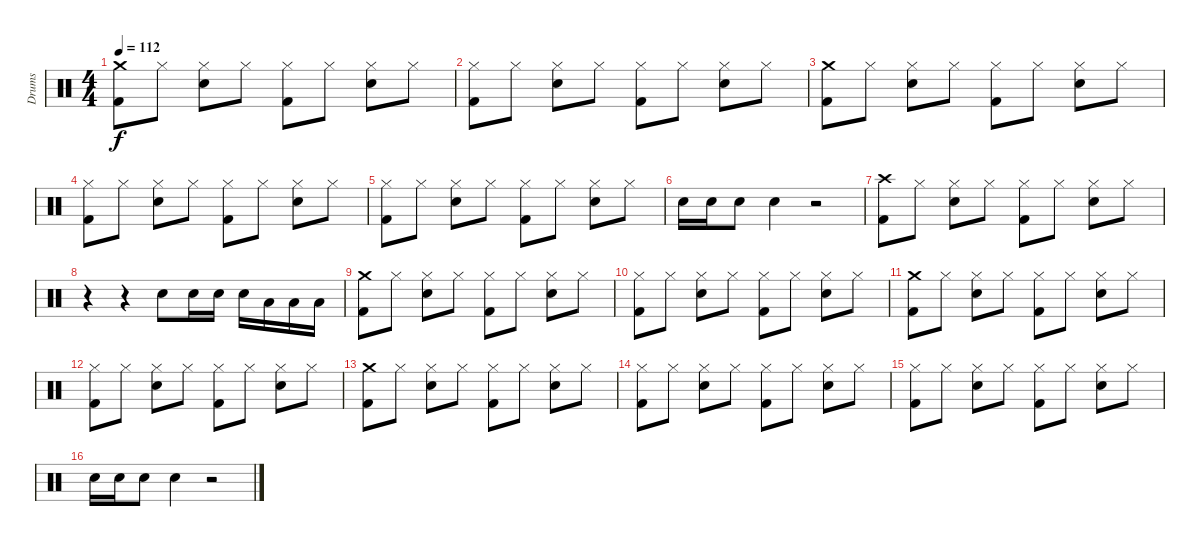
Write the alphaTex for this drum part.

\track ("Drums" "Drums") {instrument percussion}
\staff {score}
\articulation defaults
\ts (4 4)
\tempo 112
\clef neutral
\ks c
("Kick (hit) 2" "Crash medium (hit)").8{dy f} "Hi-Hat (closed)".8 ("Snare (hit) 2" "Hi-Hat (closed)").8 "Hi-Hat (closed)".8 ("Kick (hit) 2" "Hi-Hat (closed)").8 "Hi-Hat (closed)".8 ("Snare (hit) 2" "Hi-Hat (closed)").8 "Hi-Hat (closed)".8 |
("Kick (hit) 2" "Hi-Hat (closed)").8 "Hi-Hat (closed)".8 ("Snare (hit) 2" "Hi-Hat (closed)").8 "Hi-Hat (closed)".8 ("Kick (hit) 2" "Hi-Hat (closed)").8 "Hi-Hat (closed)".8 ("Snare (hit) 2" "Hi-Hat (closed)").8 "Hi-Hat (closed)".8 |
("Kick (hit) 2" "Crash medium (hit)").8 "Hi-Hat (closed)".8 ("Snare (hit) 2" "Hi-Hat (closed)").8 "Hi-Hat (closed)".8 ("Kick (hit) 2" "Hi-Hat (closed)").8 "Hi-Hat (closed)".8 ("Snare (hit) 2" "Hi-Hat (closed)").8 "Hi-Hat (closed)".8 |
("Kick (hit) 2" "Hi-Hat (closed)").8 "Hi-Hat (closed)".8 ("Snare (hit) 2" "Hi-Hat (closed)").8 "Hi-Hat (closed)".8 ("Kick (hit) 2" "Hi-Hat (closed)").8 "Hi-Hat (closed)".8 ("Snare (hit) 2" "Hi-Hat (closed)").8 "Hi-Hat (closed)".8 |
("Kick (hit) 2" "Hi-Hat (closed)").8 "Hi-Hat (closed)".8 ("Snare (hit) 2" "Hi-Hat (closed)").8 "Hi-Hat (closed)".8 ("Kick (hit) 2" "Hi-Hat (closed)").8 "Hi-Hat (closed)".8 ("Snare (hit) 2" "Hi-Hat (closed)").8 "Hi-Hat (closed)".8 |
"Snare (hit) 2".16 "Snare (hit) 2".16 "Snare (hit) 2".8 "Snare (hit) 2".4 r.2 |
("Kick (hit) 2" "Crash high (hit)").8 "Hi-Hat (closed)".8 ("Snare (hit) 2" "Hi-Hat (closed)").8 "Hi-Hat (closed)".8 ("Kick (hit) 2" "Hi-Hat (closed)").8 "Hi-Hat (closed)".8 ("Snare (hit) 2" "Hi-Hat (closed)").8 "Hi-Hat (closed)".8 |
r.4 r.4 "Snare (hit) 2".8 "Snare (hit) 2".16 "Snare (hit) 2".16 "Snare (hit) 2".16 "Low Tom (hit)".16 "Low Tom (hit)".16 "Low Tom (hit)".16 |
("Crash medium (hit)" "Kick (hit) 2").8 "Hi-Hat (closed)".8 ("Snare (hit) 2" "Hi-Hat (closed)").8 "Hi-Hat (closed)".8 ("Kick (hit) 2" "Hi-Hat (closed)").8 "Hi-Hat (closed)".8 ("Snare (hit) 2" "Hi-Hat (closed)").8 "Hi-Hat (closed)".8 |
("Kick (hit) 2" "Hi-Hat (closed)").8 "Hi-Hat (closed)".8 ("Snare (hit) 2" "Hi-Hat (closed)").8 "Hi-Hat (closed)".8 ("Kick (hit) 2" "Hi-Hat (closed)").8 "Hi-Hat (closed)".8 ("Snare (hit) 2" "Hi-Hat (closed)").8 "Hi-Hat (closed)".8 |
("Kick (hit) 2" "Crash medium (hit)").8 "Hi-Hat (closed)".8 ("Snare (hit) 2" "Hi-Hat (closed)").8 "Hi-Hat (closed)".8 ("Kick (hit) 2" "Hi-Hat (closed)").8 "Hi-Hat (closed)".8 ("Snare (hit) 2" "Hi-Hat (closed)").8 "Hi-Hat (closed)".8 |
("Kick (hit) 2" "Hi-Hat (closed)").8 "Hi-Hat (closed)".8 ("Snare (hit) 2" "Hi-Hat (closed)").8 "Hi-Hat (closed)".8 ("Kick (hit) 2" "Hi-Hat (closed)").8 "Hi-Hat (closed)".8 ("Snare (hit) 2" "Hi-Hat (closed)").8 "Hi-Hat (closed)".8 |
("Kick (hit) 2" "Crash medium (hit)").8 "Hi-Hat (closed)".8 ("Snare (hit) 2" "Hi-Hat (closed)").8 "Hi-Hat (closed)".8 ("Kick (hit) 2" "Hi-Hat (closed)").8 "Hi-Hat (closed)".8 ("Snare (hit) 2" "Hi-Hat (closed)").8 "Hi-Hat (closed)".8 |
("Kick (hit) 2" "Hi-Hat (closed)").8 "Hi-Hat (closed)".8 ("Snare (hit) 2" "Hi-Hat (closed)").8 "Hi-Hat (closed)".8 ("Kick (hit) 2" "Hi-Hat (closed)").8 "Hi-Hat (closed)".8 ("Snare (hit) 2" "Hi-Hat (closed)").8 "Hi-Hat (closed)".8 |
("Kick (hit) 2" "Hi-Hat (closed)").8 "Hi-Hat (closed)".8 ("Snare (hit) 2" "Hi-Hat (closed)").8 "Hi-Hat (closed)".8 ("Kick (hit) 2" "Hi-Hat (closed)").8 "Hi-Hat (closed)".8 ("Snare (hit) 2" "Hi-Hat (closed)").8 "Hi-Hat (closed)".8 |
"Snare (hit) 2".16 "Snare (hit) 2".16 "Snare (hit) 2".8 "Snare (hit) 2".4 r.2
